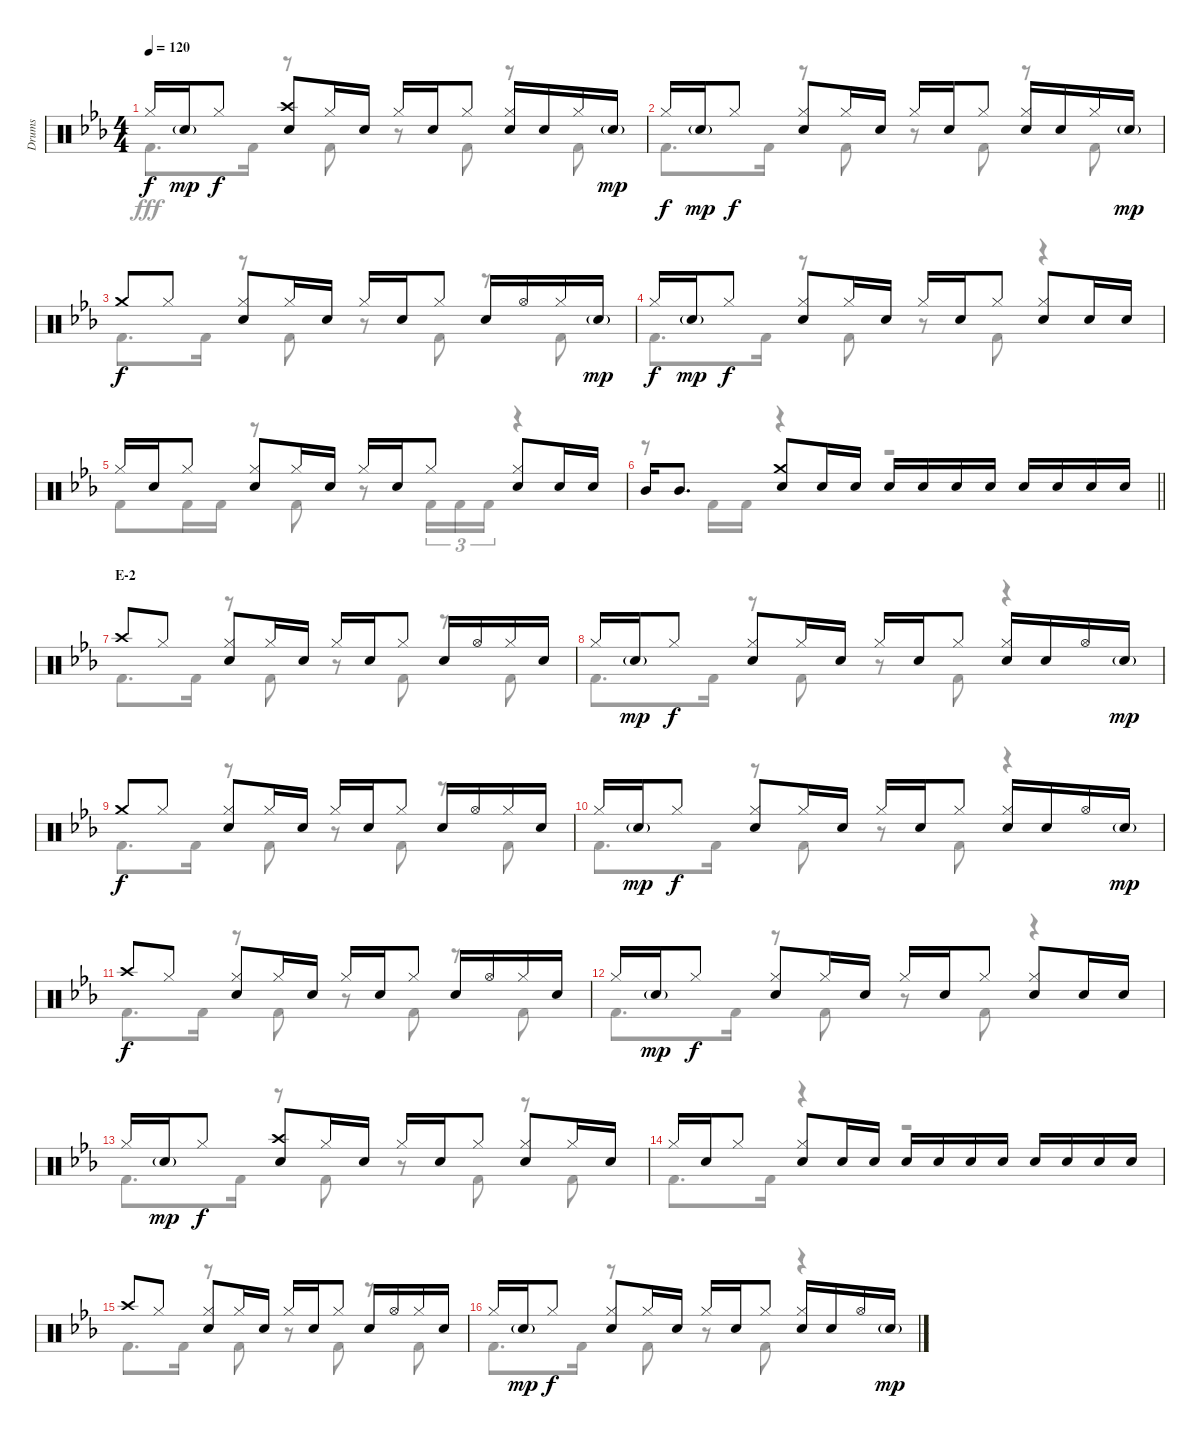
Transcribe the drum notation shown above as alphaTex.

\track ("Drums" "Drums") {instrument percussion}
\staff {score}
\articulation defaults
\voice
\ts (4 4)
\tempo 120
\clef neutral
\ks eb "Hi-Hat (closed)".16{dy f} "Snare (hit) 2"{g}.16{dy mp} "Hi-Hat (closed)".8{dy f}
("Crash high (hit)" "Snare (hit) 2").8 "Hi-Hat (closed)".16 "Snare (hit) 2".16 "Hi-Hat (closed)".16 "Snare (hit) 2".16 "Hi-Hat (closed)".8 ("Hi-Hat (closed)" "Snare (hit) 2").16 "Snare (hit) 2".16 "Hi-Hat (closed)".16 "Snare (hit) 2"{g}.16{dy mp} |
"Hi-Hat (closed)".16{dy f} "Snare (hit) 2"{g}.16{dy mp} "Hi-Hat (closed)".8{dy f} ("Hi-Hat (closed)" "Snare (hit) 2").8 "Hi-Hat (closed)".16 "Snare (hit) 2".16 "Hi-Hat (closed)".16 "Snare (hit) 2".16 "Hi-Hat (closed)".8 ("Hi-Hat (closed)" "Snare (hit) 2").16 "Snare (hit) 2".16 "Hi-Hat (closed)".16 "Snare (hit) 2"{g}.16{dy mp} |
"Crash medium (hit)".8{dy f} "Hi-Hat (closed)".8 ("Hi-Hat (closed)" "Snare (hit) 2").8 "Hi-Hat (closed)".16 "Snare (hit) 2".16 "Hi-Hat (closed)".16 "Snare (hit) 2".16 "Hi-Hat (closed)".8 "Snare (hit) 2".16 "Hi-Hat (open)".16 "Hi-Hat (closed)".16 "Snare (hit) 2"{g}.16{dy mp} |
"Hi-Hat (closed)".16{dy f} "Snare (hit) 2"{g}.16{dy mp} "Hi-Hat (closed)".8{dy f} ("Hi-Hat (closed)" "Snare (hit) 2").8 "Hi-Hat (closed)".16 "Snare (hit) 2".16 "Hi-Hat (closed)".16 "Snare (hit) 2".16 "Hi-Hat (closed)".8 ("Hi-Hat (closed)" "Snare (hit) 2").8 "Snare (hit) 2".16 "Snare (hit) 2".16 |
"Hi-Hat (closed)".16 "Snare (hit) 2".16 "Hi-Hat (closed)".8 ("Hi-Hat (closed)" "Snare (hit) 2").8 "Hi-Hat (closed)".16 "Snare (hit) 2".16 "Hi-Hat (closed)".16 "Snare (hit) 2".16 "Hi-Hat (closed)".8 ("Hi-Hat (closed)" "Snare (hit) 2").8 "Snare (hit) 2".16 "Snare (hit) 2".16 |
\barLineRight lightlight "Mid Tom (hit)".16 "Mid Tom (hit)".8{d}
("Crash medium (hit)" "Snare (hit) 2").8 "Snare (hit) 2".16 "Snare (hit) 2".16 "Snare (hit) 2".16 "Snare (hit) 2".16 "Snare (hit) 2".16 "Snare (hit) 2".16 "Snare (hit) 2".16 "Snare (hit) 2".16 "Snare (hit) 2".16 "Snare (hit) 2".16 |
\section ("" "E-2")
"Crash high (hit)".8 "Hi-Hat (closed)".8 ("Hi-Hat (closed)" "Snare (hit) 2").8 "Hi-Hat (closed)".16 "Snare (hit) 2".16 "Hi-Hat (closed)".16 "Snare (hit) 2".16 "Hi-Hat (closed)".8 "Snare (hit) 2".16 "Hi-Hat (open)".16 "Hi-Hat (closed)".16 "Snare (hit) 2".16 |
"Hi-Hat (closed)".16 "Snare (hit) 2"{g}.16{dy mp} "Hi-Hat (closed)".8{dy f} ("Hi-Hat (closed)" "Snare (hit) 2").8 "Hi-Hat (closed)".16 "Snare (hit) 2".16 "Hi-Hat (closed)".16 "Snare (hit) 2".16 "Hi-Hat (closed)".8 ("Hi-Hat (closed)" "Snare (hit) 2").16 "Snare (hit) 2".16 "Hi-Hat (open)".16 "Snare (hit) 2"{g}.16{dy mp} |
"Crash medium (hit)".8{dy f} "Hi-Hat (closed)".8 ("Hi-Hat (closed)" "Snare (hit) 2").8 "Hi-Hat (closed)".16 "Snare (hit) 2".16 "Hi-Hat (closed)".16 "Snare (hit) 2".16 "Hi-Hat (closed)".8 "Snare (hit) 2".16 "Hi-Hat (open)".16 "Hi-Hat (closed)".16 "Snare (hit) 2".16 |
"Hi-Hat (closed)".16 "Snare (hit) 2"{g}.16{dy mp} "Hi-Hat (closed)".8{dy f} ("Hi-Hat (closed)" "Snare (hit) 2").8 "Hi-Hat (closed)".16 "Snare (hit) 2".16 "Hi-Hat (closed)".16 "Snare (hit) 2".16 "Hi-Hat (closed)".8 ("Hi-Hat (closed)" "Snare (hit) 2").16 "Snare (hit) 2".16 "Hi-Hat (open)".16 "Snare (hit) 2"{g}.16{dy mp} |
"Crash high (hit)".8{dy f} "Hi-Hat (closed)".8 ("Hi-Hat (closed)" "Snare (hit) 2").8 "Hi-Hat (closed)".16 "Snare (hit) 2".16 "Hi-Hat (closed)".16 "Snare (hit) 2".16 "Hi-Hat (closed)".8 "Snare (hit) 2".16 "Hi-Hat (open)".16 "Hi-Hat (closed)".16 "Snare (hit) 2".16 |
"Hi-Hat (closed)".16 "Snare (hit) 2"{g}.16{dy mp} "Hi-Hat (closed)".8{dy f} ("Hi-Hat (closed)" "Snare (hit) 2").8 "Hi-Hat (closed)".16 "Snare (hit) 2".16 "Hi-Hat (closed)".16 "Snare (hit) 2".16 "Hi-Hat (closed)".8 ("Hi-Hat (closed)" "Snare (hit) 2").8 "Snare (hit) 2".16 "Snare (hit) 2".16 |
"Hi-Hat (closed)".16 "Snare (hit) 2"{g}.16{dy mp} "Hi-Hat (closed)".8{dy f} ("Crash high (hit)" "Snare (hit) 2").8 "Hi-Hat (closed)".16 "Snare (hit) 2".16 "Hi-Hat (closed)".16 "Snare (hit) 2".16 "Hi-Hat (closed)".8 ("Hi-Hat (closed)" "Snare (hit) 2").8 "Hi-Hat (closed)".16 "Snare (hit) 2".16 |
"Hi-Hat (closed)".16 "Snare (hit) 2".16 "Hi-Hat (closed)".8 ("Hi-Hat (closed)" "Snare (hit) 2").8 "Snare (hit) 2".16 "Snare (hit) 2".16 "Snare (hit) 2".16 "Snare (hit) 2".16 "Snare (hit) 2".16 "Snare (hit) 2".16 "Snare (hit) 2".16 "Snare (hit) 2".16 "Snare (hit) 2".16 "Snare (hit) 2".16 |
"Crash high (hit)".8 "Hi-Hat (closed)".8 ("Hi-Hat (closed)" "Snare (hit) 2").8 "Hi-Hat (closed)".16 "Snare (hit) 2".16 "Hi-Hat (closed)".16 "Snare (hit) 2".16 "Hi-Hat (closed)".8 "Snare (hit) 2".16 "Hi-Hat (open)".16 "Hi-Hat (closed)".16 "Snare (hit) 2".16 |
"Hi-Hat (closed)".16 "Snare (hit) 2"{g}.16{dy mp} "Hi-Hat (closed)".8{dy f} ("Hi-Hat (closed)" "Snare (hit) 2").8 "Hi-Hat (closed)".16 "Snare (hit) 2".16 "Hi-Hat (closed)".16 "Snare (hit) 2".16 "Hi-Hat (closed)".8 ("Hi-Hat (closed)" "Snare (hit) 2").16 "Snare (hit) 2".16 "Hi-Hat (open)".16 "Snare (hit) 2"{g}.16{dy mp}
\voice
\clef neutral
\ottava regular
\simile none
\ks eb "Kick (hit) 2".8{d dy fff} "Kick (hit) 2".16
r.8 "Kick (hit) 2".8 r.8 "Kick (hit) 2".8 r.8 "Kick (hit) 2".8 |
"Kick (hit) 2".8{d} "Kick (hit) 2".16 r.8 "Kick (hit) 2".8 r.8 "Kick (hit) 2".8 r.8 "Kick (hit) 2".8 |
"Kick (hit) 2".8{d} "Kick (hit) 2".16 r.8 "Kick (hit) 2".8 r.8 "Kick (hit) 2".8 r.8 "Kick (hit) 2".8 |
"Kick (hit) 2".8{d} "Kick (hit) 2".16 r.8 "Kick (hit) 2".8 r.8 "Kick (hit) 2".8 r.4 |
"Kick (hit) 2".8 "Kick (hit) 2".16 "Kick (hit) 2".16 r.8 "Kick (hit) 2".8 r.8 "Kick (hit) 2".16{tu (3 2)} "Kick (hit) 2".16{tu (3 2)} "Kick (hit) 2".16{tu (3 2)} r.4 |
\barLineRight lightlight
r.8 "Kick (hit) 2".16 "Kick (hit) 2".16 r.4 r.2 |
"Kick (hit) 2".8{d} "Kick (hit) 2".16 r.8 "Kick (hit) 2".8 r.8 "Kick (hit) 2".8 r.8 "Kick (hit) 2".8 |
"Kick (hit) 2".8{d} "Kick (hit) 2".16 r.8 "Kick (hit) 2".8 r.8 "Kick (hit) 2".8 r.4 |
"Kick (hit) 2".8{d} "Kick (hit) 2".16 r.8 "Kick (hit) 2".8 r.8 "Kick (hit) 2".8 r.8 "Kick (hit) 2".8 |
"Kick (hit) 2".8{d} "Kick (hit) 2".16 r.8 "Kick (hit) 2".8 r.8 "Kick (hit) 2".8 r.4 |
"Kick (hit) 2".8{d} "Kick (hit) 2".16 r.8 "Kick (hit) 2".8 r.8 "Kick (hit) 2".8 r.8 "Kick (hit) 2".8 |
"Kick (hit) 2".8{d} "Kick (hit) 2".16 r.8 "Kick (hit) 2".8 r.8 "Kick (hit) 2".8 r.4 |
"Kick (hit) 2".8{d} "Kick (hit) 2".16 r.8 "Kick (hit) 2".8 r.8 "Kick (hit) 2".8 r.8 "Kick (hit) 2".8 |
"Kick (hit) 2".8{d} "Kick (hit) 2".16 r.4 r.2 |
"Kick (hit) 2".8{d} "Kick (hit) 2".16 r.8 "Kick (hit) 2".8 r.8 "Kick (hit) 2".8 r.8 "Kick (hit) 2".8 |
"Kick (hit) 2".8{d} "Kick (hit) 2".16 r.8 "Kick (hit) 2".8 r.8 "Kick (hit) 2".8 r.4
